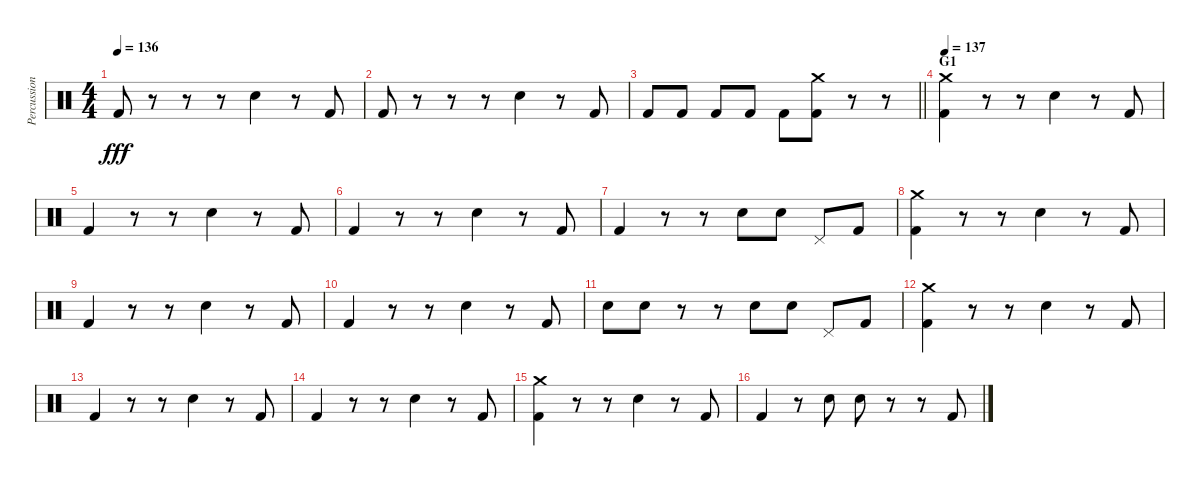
\track ("Percussion" "Percussion") {instrument percussion}
\staff {score}
\articulation defaults
\ts (4 4)
\tempo 136
\clef neutral
\ks c "Kick (hit) 2".8{dy fff}
r.8 r.8 r.8 "Electric Snare (hit)".4 r.8 "Kick (hit) 2".8 |
"Kick (hit) 2".8 r.8 r.8 r.8 "Electric Snare (hit)".4 r.8 "Kick (hit) 2".8 |
\barLineRight lightlight "Kick (hit) 2".8 "Kick (hit) 2".8 "Kick (hit) 2".8 "Kick (hit) 2".8 "Kick (hit) 2".8
("Kick (hit) 2" "Crash medium (hit)").8 r.8 r.8 |
\section ("" "G1")
\tempo 137
("Kick (hit) 2" "Crash medium (hit)").4 r.8 r.8 "Electric Snare (hit)".4 r.8 "Kick (hit) 2".8 |
"Kick (hit) 2".4 r.8 r.8 "Electric Snare (hit)".4 r.8 "Kick (hit) 2".8 |
"Kick (hit) 2".4 r.8 r.8 "Electric Snare (hit)".4 r.8 "Kick (hit) 2".8 |
"Kick (hit) 2".4 r.8 r.8 "Electric Snare (hit)".8 "Electric Snare (hit)".8 "Pedal Hi-Hat (hit)".8 "Kick (hit) 2".8 |
("Kick (hit) 2" "Crash medium (hit)").4 r.8 r.8 "Electric Snare (hit)".4 r.8 "Kick (hit) 2".8 |
"Kick (hit) 2".4 r.8 r.8 "Electric Snare (hit)".4 r.8 "Kick (hit) 2".8 |
"Kick (hit) 2".4 r.8 r.8 "Electric Snare (hit)".4 r.8 "Kick (hit) 2".8 |
"Electric Snare (hit)".8 "Electric Snare (hit)".8 r.8 r.8 "Electric Snare (hit)".8 "Electric Snare (hit)".8 "Pedal Hi-Hat (hit)".8 "Kick (hit) 2".8 |
("Kick (hit) 2" "Crash medium (hit)").4 r.8 r.8 "Electric Snare (hit)".4 r.8 "Kick (hit) 2".8 |
"Kick (hit) 2".4 r.8 r.8 "Electric Snare (hit)".4 r.8 "Kick (hit) 2".8 |
"Kick (hit) 2".4 r.8 r.8 "Electric Snare (hit)".4 r.8 "Kick (hit) 2".8 |
("Kick (hit) 2" "Crash medium (hit)").4 r.8 r.8 "Electric Snare (hit)".4 r.8 "Kick (hit) 2".8 |
"Kick (hit) 2".4 r.8 "Electric Snare (hit)".8 "Electric Snare (hit)".8 r.8 r.8 "Kick (hit) 2".8
